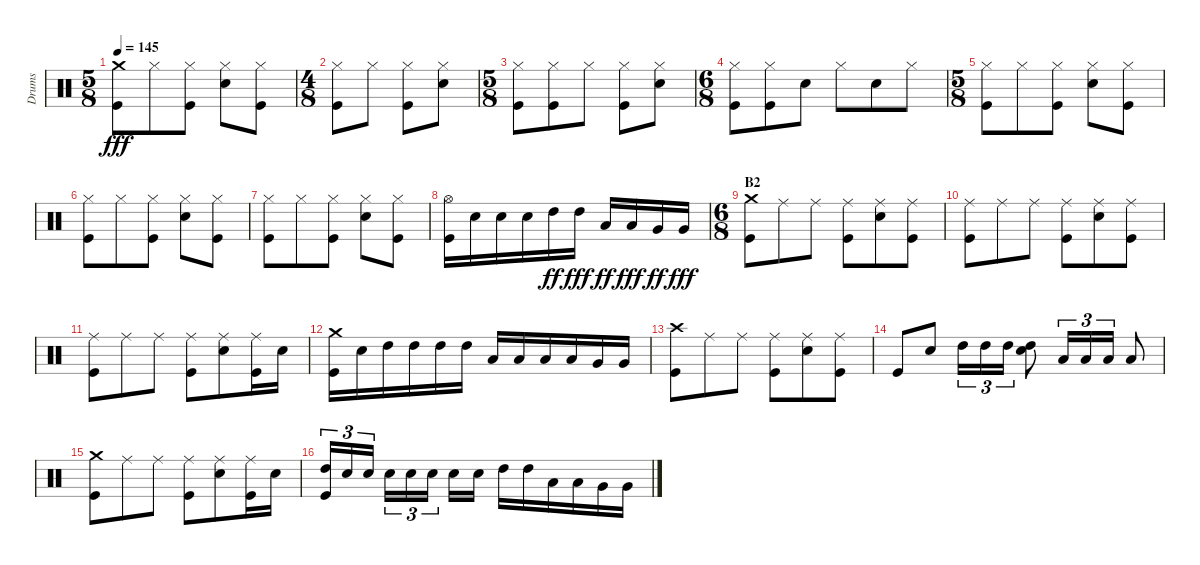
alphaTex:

\track ("Drums" "Drums") {instrument percussion}
\staff {score}
\articulation defaults
\ts (5 8)
\tempo 145
\clef neutral
\ks c
("Crash medium (hit)" "Kick (hit)").8{dy fff} "Hi-Hat (closed)".8 ("Hi-Hat (closed)" "Kick (hit)").8 ("Hi-Hat (closed)" "Snare (hit) 2").8 ("Hi-Hat (closed)" "Kick (hit)").8 |
\ts (4 8)
("Hi-Hat (closed)" "Kick (hit)").8 "Hi-Hat (closed)".8 ("Hi-Hat (closed)" "Kick (hit)").8 ("Hi-Hat (closed)" "Snare (hit) 2").8 |
\ts (5 8)
("Hi-Hat (closed)" "Kick (hit)").8 ("Hi-Hat (closed)" "Kick (hit)").8 "Hi-Hat (closed)".8 ("Hi-Hat (closed)" "Kick (hit)").8 ("Hi-Hat (closed)" "Snare (hit) 2").8 |
\ts (6 8)
("Hi-Hat (closed)" "Kick (hit)").8 ("Hi-Hat (closed)" "Kick (hit)").8 "Snare (hit) 2".8 "Hi-Hat (closed)".8 "Snare (hit) 2".8 "Hi-Hat (closed)".8 |
\ts (5 8)
("Hi-Hat (closed)" "Kick (hit)").8 "Hi-Hat (closed)".8 ("Hi-Hat (closed)" "Kick (hit)").8 ("Hi-Hat (closed)" "Snare (hit) 2").8 ("Hi-Hat (closed)" "Kick (hit)").8 |
("Hi-Hat (closed)" "Kick (hit)").8 "Hi-Hat (closed)".8 ("Hi-Hat (closed)" "Kick (hit)").8 ("Hi-Hat (closed)" "Snare (hit) 2").8 ("Hi-Hat (closed)" "Kick (hit)").8 |
("Hi-Hat (closed)" "Kick (hit)").8 "Hi-Hat (closed)".8 ("Hi-Hat (closed)" "Kick (hit)").8 ("Hi-Hat (closed)" "Snare (hit) 2").8 ("Hi-Hat (closed)" "Kick (hit)").8 |
("Hi-Hat (open)" "Kick (hit)").16 "Snare (hit) 2".16 "Snare (hit) 2".16 "Snare (hit) 2".16 "High Tom (hit)".16{dy ff} "High Tom (hit)".16{dy fff} "Low Tom (hit)".16{dy ff} "Low Tom (hit)".16{dy fff} "Very Low Tom (hit)".16{dy ff} "Very Low Tom (hit)".16{dy fff} |
\ts (6 8)
\section ("" "B2")
("Crash medium (hit)" "Kick (hit)").8 "Ride (middle)".8 "Ride (middle)".8 ("Ride (middle)" "Kick (hit)").8 ("Ride (middle)" "Snare (hit) 2").8 ("Ride (middle)" "Kick (hit)").8 |
("Ride (middle)" "Kick (hit)").8 "Ride (middle)".8 "Ride (middle)".8 ("Ride (middle)" "Kick (hit)").8 ("Ride (middle)" "Snare (hit) 2").8 ("Ride (middle)" "Kick (hit)").8 |
("Ride (middle)" "Kick (hit)").8 "Ride (middle)".8 "Ride (middle)".8 ("Ride (middle)" "Kick (hit)").8 ("Ride (middle)" "Snare (hit) 2").8 ("Ride (middle)" "Kick (hit)").16 "Snare (hit) 2".16 |
("Crash medium (hit)" "Kick (hit)").16 "Snare (hit) 2".16 "High Tom (hit)".16 "High Tom (hit)".16 "High Tom (hit)".16 "High Tom (hit)".16 "Low Tom (hit)".16 "Low Tom (hit)".16 "Low Tom (hit)".16 "Low Tom (hit)".16 "Very Low Tom (hit)".16 "Very Low Tom (hit)".16 |
("Crash high (hit)" "Kick (hit)").8 "Ride (middle)".8 "Ride (middle)".8 ("Ride (middle)" "Kick (hit)").8 ("Ride (middle)" "Snare (hit) 2").8 ("Ride (middle)" "Kick (hit)").8 |
"Kick (hit)".8 "Snare (hit) 2".8 "High Tom (hit)".16{tu (3 2)} "High Tom (hit)".16{tu (3 2)} "High Tom (hit)".16{tu (3 2)} ("High Tom (hit)" "Snare (hit) 2").8 "Low Tom (hit)".16{tu (3 2)} "Low Tom (hit)".16{tu (3 2)} "Low Tom (hit)".16{tu (3 2)} "Low Tom (hit)".8 |
("Crash medium (hit)" "Kick (hit)").8 "Ride (middle)".8 "Ride (middle)".8 ("Ride (middle)" "Kick (hit)").8 ("Ride (middle)" "Snare (hit) 2").8 ("Ride (middle)" "Kick (hit)").16 "Snare (hit) 2".16 |
("High Tom (hit)" "Kick (hit)").16{tu (3 2)} "Snare (hit) 2".16{tu (3 2)} "Snare (hit) 2".16{tu (3 2)} "Snare (hit) 2".16{tu (3 2)} "Snare (hit) 2".16{tu (3 2)} "Snare (hit) 2".16{tu (3 2)} "Snare (hit) 2".16 "Snare (hit) 2".16 "High Tom (hit)".16 "High Tom (hit)".16 "Low Tom (hit)".16 "Low Tom (hit)".16 "Very Low Tom (hit)".16 "Very Low Tom (hit)".16
